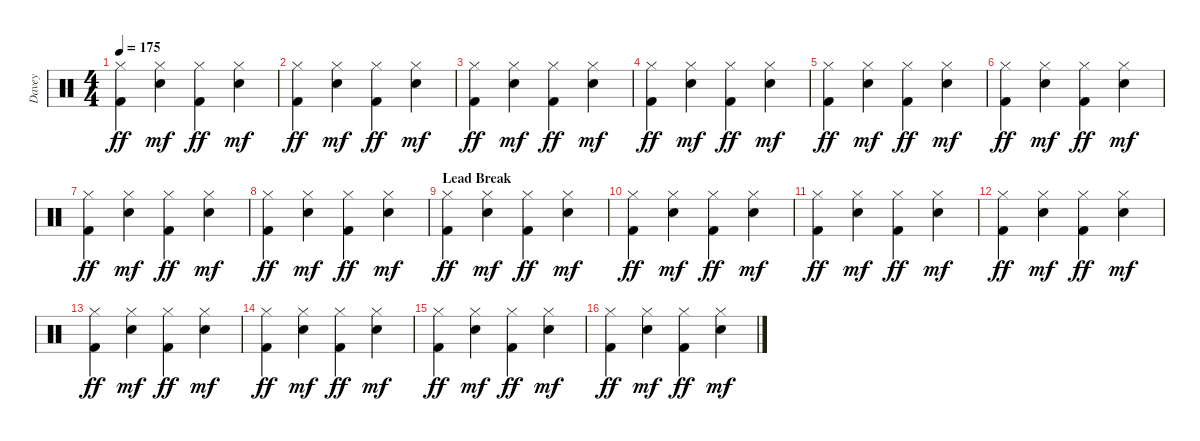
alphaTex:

\track ("Davey" "Davey") {instrument percussion}
\staff {score}
\articulation defaults
\ts (4 4)
\tempo 175
\clef neutral
\ks c
("Hi-Hat (closed)" "Kick (hit) 2").4{dy ff} ("Hi-Hat (closed)" "Electric Snare (hit)").4{dy mf} ("Hi-Hat (closed)" "Kick (hit) 2").4{dy ff} ("Hi-Hat (closed)" "Electric Snare (hit)").4{dy mf} |
("Hi-Hat (closed)" "Kick (hit) 2").4{dy ff} ("Hi-Hat (closed)" "Electric Snare (hit)").4{dy mf} ("Hi-Hat (closed)" "Kick (hit) 2").4{dy ff} ("Hi-Hat (closed)" "Electric Snare (hit)").4{dy mf} |
("Hi-Hat (closed)" "Kick (hit) 2").4{dy ff} ("Hi-Hat (closed)" "Electric Snare (hit)").4{dy mf} ("Hi-Hat (closed)" "Kick (hit) 2").4{dy ff} ("Hi-Hat (closed)" "Electric Snare (hit)").4{dy mf} |
("Hi-Hat (closed)" "Kick (hit) 2").4{dy ff} ("Hi-Hat (closed)" "Electric Snare (hit)").4{dy mf} ("Hi-Hat (closed)" "Kick (hit) 2").4{dy ff} ("Hi-Hat (closed)" "Electric Snare (hit)").4{dy mf} |
("Hi-Hat (closed)" "Kick (hit) 2").4{dy ff} ("Hi-Hat (closed)" "Electric Snare (hit)").4{dy mf} ("Hi-Hat (closed)" "Kick (hit) 2").4{dy ff} ("Hi-Hat (closed)" "Electric Snare (hit)").4{dy mf} |
("Hi-Hat (closed)" "Kick (hit) 2").4{dy ff} ("Hi-Hat (closed)" "Electric Snare (hit)").4{dy mf} ("Hi-Hat (closed)" "Kick (hit) 2").4{dy ff} ("Hi-Hat (closed)" "Electric Snare (hit)").4{dy mf} |
("Hi-Hat (closed)" "Kick (hit) 2").4{dy ff} ("Hi-Hat (closed)" "Electric Snare (hit)").4{dy mf} ("Hi-Hat (closed)" "Kick (hit) 2").4{dy ff} ("Hi-Hat (closed)" "Electric Snare (hit)").4{dy mf} |
("Hi-Hat (closed)" "Kick (hit) 2").4{dy ff} ("Hi-Hat (closed)" "Electric Snare (hit)").4{dy mf} ("Hi-Hat (closed)" "Kick (hit) 2").4{dy ff} ("Hi-Hat (closed)" "Electric Snare (hit)").4{dy mf} |
\section ("" "Lead Break")
("Hi-Hat (closed)" "Kick (hit) 2").4{dy ff} ("Hi-Hat (closed)" "Electric Snare (hit)").4{dy mf} ("Hi-Hat (closed)" "Kick (hit) 2").4{dy ff} ("Hi-Hat (closed)" "Electric Snare (hit)").4{dy mf} |
("Hi-Hat (closed)" "Kick (hit) 2").4{dy ff} ("Hi-Hat (closed)" "Electric Snare (hit)").4{dy mf} ("Hi-Hat (closed)" "Kick (hit) 2").4{dy ff} ("Hi-Hat (closed)" "Electric Snare (hit)").4{dy mf} |
("Hi-Hat (closed)" "Kick (hit) 2").4{dy ff} ("Hi-Hat (closed)" "Electric Snare (hit)").4{dy mf} ("Hi-Hat (closed)" "Kick (hit) 2").4{dy ff} ("Hi-Hat (closed)" "Electric Snare (hit)").4{dy mf} |
("Hi-Hat (closed)" "Kick (hit) 2").4{dy ff} ("Hi-Hat (closed)" "Electric Snare (hit)").4{dy mf} ("Hi-Hat (closed)" "Kick (hit) 2").4{dy ff} ("Hi-Hat (closed)" "Electric Snare (hit)").4{dy mf} |
("Hi-Hat (closed)" "Kick (hit) 2").4{dy ff} ("Hi-Hat (closed)" "Electric Snare (hit)").4{dy mf} ("Hi-Hat (closed)" "Kick (hit) 2").4{dy ff} ("Hi-Hat (closed)" "Electric Snare (hit)").4{dy mf} |
("Hi-Hat (closed)" "Kick (hit) 2").4{dy ff} ("Hi-Hat (closed)" "Electric Snare (hit)").4{dy mf} ("Hi-Hat (closed)" "Kick (hit) 2").4{dy ff} ("Hi-Hat (closed)" "Electric Snare (hit)").4{dy mf} |
("Hi-Hat (closed)" "Kick (hit) 2").4{dy ff} ("Hi-Hat (closed)" "Electric Snare (hit)").4{dy mf} ("Hi-Hat (closed)" "Kick (hit) 2").4{dy ff} ("Hi-Hat (closed)" "Electric Snare (hit)").4{dy mf} |
("Hi-Hat (closed)" "Kick (hit) 2").4{dy ff} ("Hi-Hat (closed)" "Electric Snare (hit)").4{dy mf} ("Hi-Hat (closed)" "Kick (hit) 2").4{dy ff} ("Hi-Hat (closed)" "Electric Snare (hit)").4{dy mf}
